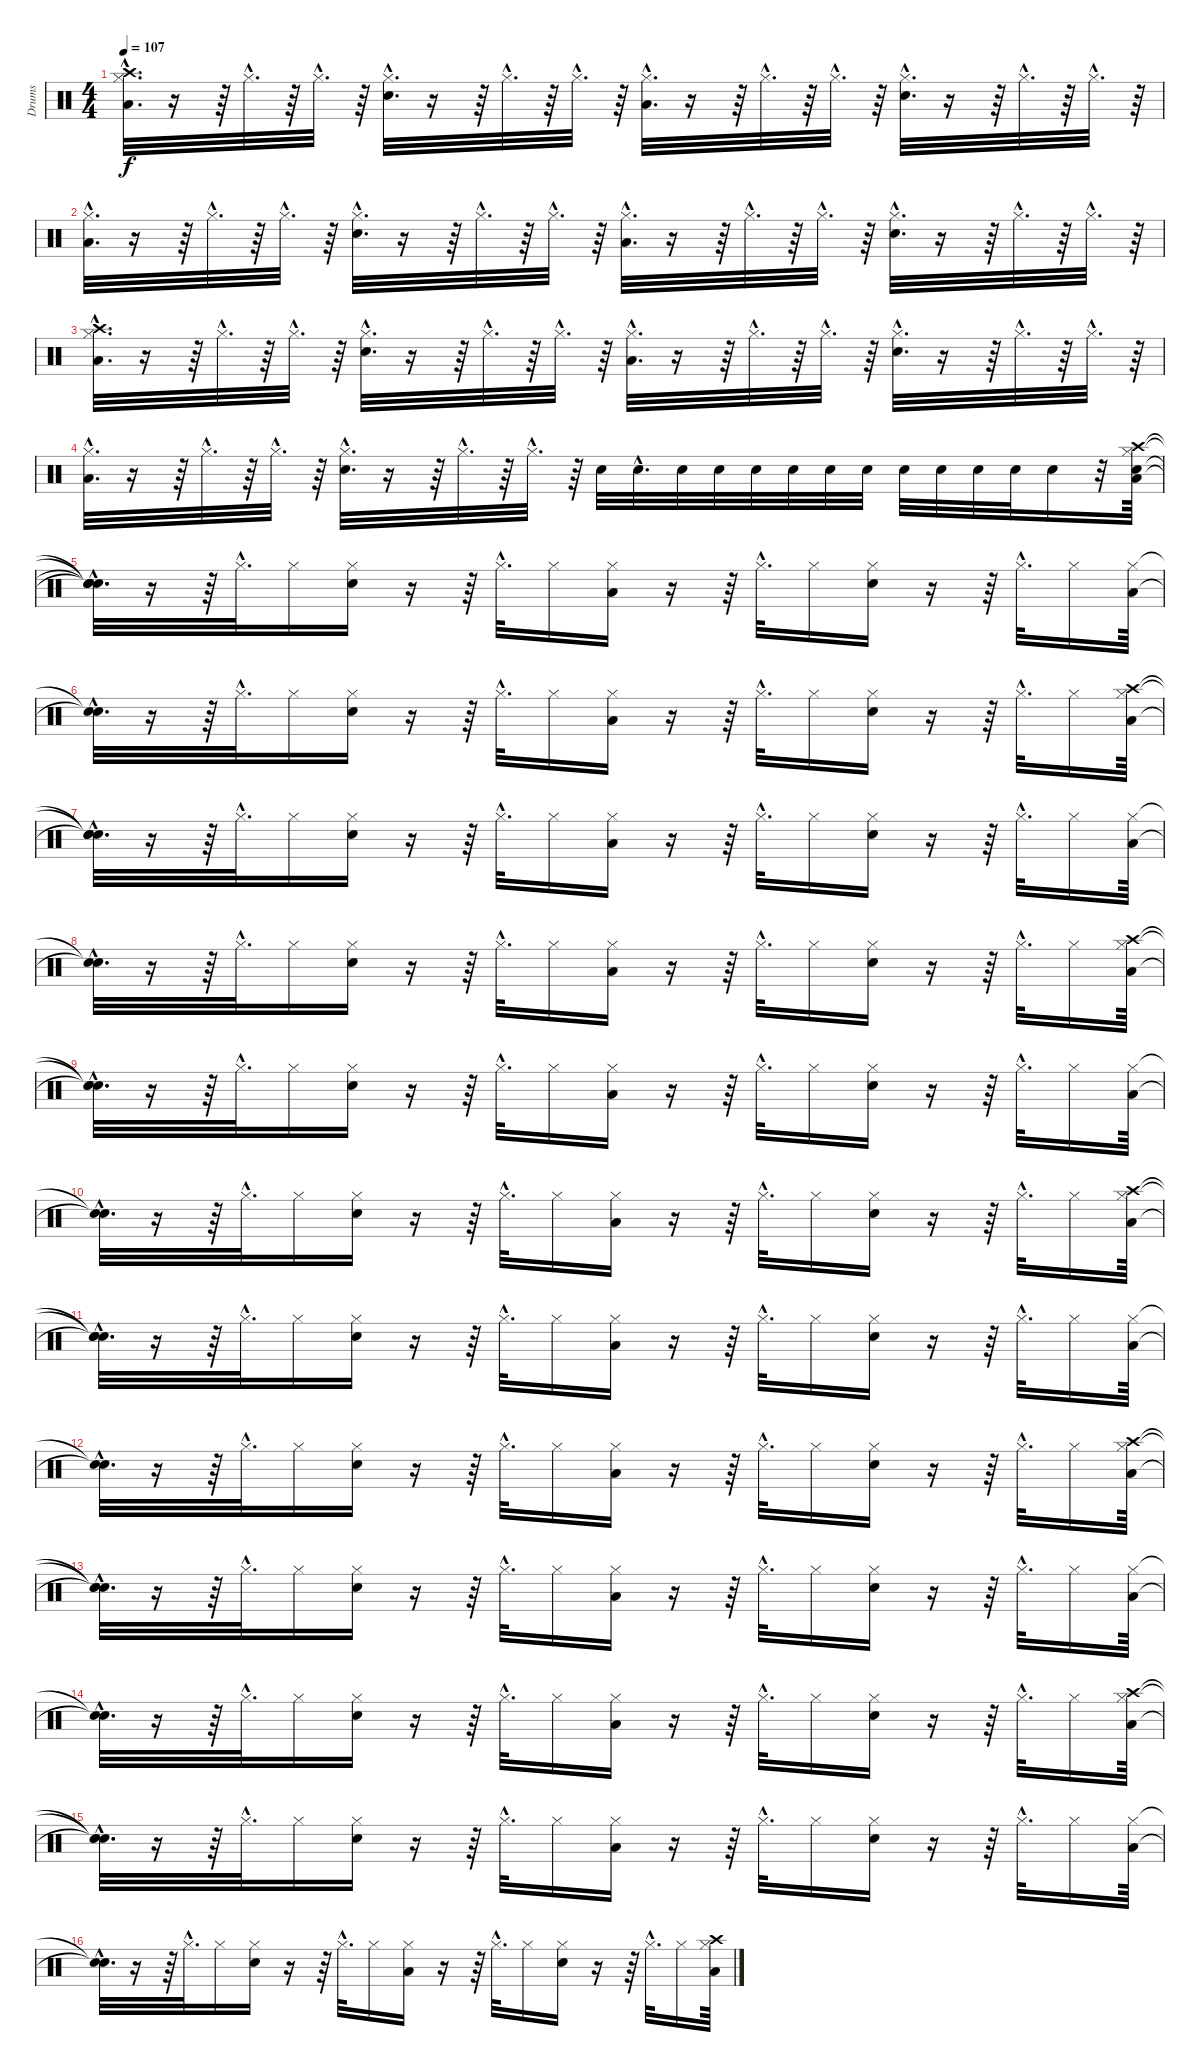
\track ("Drums" "Drums") {instrument percussion}
\staff {score}
\articulation defaults
\ts (4 4)
\tempo 107
\clef neutral
\ks c
("Hi-Hat (closed)"{hac} "Crash high (hit)"{hac} "Low Tom (hit)"{hac}).32{d dy f} r.16 r.64 "Hi-Hat (closed)"{hac}.32{d} r.64 "Hi-Hat (closed)"{hac}.32{d} r.64 ("Hi-Hat (closed)"{hac} "Snare (hit) 2"{hac}).32{d} r.16 r.64 "Hi-Hat (closed)"{hac}.32{d} r.64 "Hi-Hat (closed)"{hac}.32{d} r.64 ("Hi-Hat (closed)"{hac} "Low Tom (hit)"{hac}).32{d} r.16 r.64 "Hi-Hat (closed)"{hac}.32{d} r.64 "Hi-Hat (closed)"{hac}.32{d} r.64 ("Hi-Hat (closed)"{hac} "Snare (hit) 2"{hac}).32{d} r.16 r.64 "Hi-Hat (closed)"{hac}.32{d} r.64 "Hi-Hat (closed)"{hac}.32{d} r.64 |
("Hi-Hat (closed)"{hac} "Low Tom (hit)"{hac}).32{d} r.16 r.64 "Hi-Hat (closed)"{hac}.32{d} r.64 "Hi-Hat (closed)"{hac}.32{d} r.64 ("Hi-Hat (closed)"{hac} "Snare (hit) 2"{hac}).32{d} r.16 r.64 "Hi-Hat (closed)"{hac}.32{d} r.64 "Hi-Hat (closed)"{hac}.32{d} r.64 ("Hi-Hat (closed)"{hac} "Low Tom (hit)"{hac}).32{d} r.16 r.64 "Hi-Hat (closed)"{hac}.32{d} r.64 "Hi-Hat (closed)"{hac}.32{d} r.64 ("Hi-Hat (closed)"{hac} "Snare (hit) 2"{hac}).32{d} r.16 r.64 "Hi-Hat (closed)"{hac}.32{d} r.64 "Hi-Hat (closed)"{hac}.32{d} r.64 |
("Hi-Hat (closed)"{hac} "Crash high (hit)"{hac} "Low Tom (hit)"{hac}).32{d} r.16 r.64 "Hi-Hat (closed)"{hac}.32{d} r.64 "Hi-Hat (closed)"{hac}.32{d} r.64 ("Hi-Hat (closed)"{hac} "Snare (hit) 2"{hac}).32{d} r.16 r.64 "Hi-Hat (closed)"{hac}.32{d} r.64 "Hi-Hat (closed)"{hac}.32{d} r.64 ("Hi-Hat (closed)"{hac} "Low Tom (hit)"{hac}).32{d} r.16 r.64 "Hi-Hat (closed)"{hac}.32{d} r.64 "Hi-Hat (closed)"{hac}.32{d} r.64 ("Hi-Hat (closed)"{hac} "Snare (hit) 2"{hac}).32{d} r.16 r.64 "Hi-Hat (closed)"{hac}.32{d} r.64 "Hi-Hat (closed)"{hac}.32{d} r.64 |
("Hi-Hat (closed)"{hac} "Low Tom (hit)"{hac}).32{d} r.16 r.64 "Hi-Hat (closed)"{hac}.32{d} r.64 "Hi-Hat (closed)"{hac}.32{d} r.64 ("Hi-Hat (closed)"{hac} "Snare (hit) 2"{hac}).32{d} r.16 r.64 "Hi-Hat (closed)"{hac}.32{d} r.64 "Hi-Hat (closed)"{hac}.32{d} r.64 "Snare (hit) 2".32 "Snare (hit) 2"{hac}.32{d} "Snare (hit) 2".32 "Snare (hit) 2".32 "Snare (hit) 2".32 "Snare (hit) 2".32 "Snare (hit) 2".32 "Snare (hit) 2".32 "Snare (hit) 2".32 "Snare (hit) 2".32 "Snare (hit) 2".32 "Snare (hit) 2".32 "Snare (hit) 2".16 r.32 ("Hi-Hat (closed)" "Crash high (hit)" "Low Tom (hit)" "Snare (hit) 2").64 |
("Snare (hit)"{hac t} "Snare (hit)"{hac t} "Snare (hit)"{hac t} "Snare (hit)"{hac t}).32{d} r.16 r.64 "Hi-Hat (closed)"{hac}.32{d} "Hi-Hat (closed)".16 ("Hi-Hat (closed)" "Snare (hit) 2").16 r.16 r.64 "Hi-Hat (closed)"{hac}.32{d} "Hi-Hat (closed)".16 ("Hi-Hat (closed)" "Low Tom (hit)").16 r.16 r.64 "Hi-Hat (closed)"{hac}.32{d} "Hi-Hat (closed)".16 ("Hi-Hat (closed)" "Snare (hit) 2").16 r.16 r.64 "Hi-Hat (closed)"{hac}.32{d} "Hi-Hat (closed)".16 ("Hi-Hat (closed)" "Low Tom (hit)").64 |
("Snare (hit)"{hac t} "Snare (hit)"{hac t}).32{d} r.16 r.64 "Hi-Hat (closed)"{hac}.32{d} "Hi-Hat (closed)".16 ("Hi-Hat (closed)" "Snare (hit) 2").16 r.16 r.64 "Hi-Hat (closed)"{hac}.32{d} "Hi-Hat (closed)".16 ("Hi-Hat (closed)" "Low Tom (hit)").16 r.16 r.64 "Hi-Hat (closed)"{hac}.32{d} "Hi-Hat (closed)".16 ("Hi-Hat (closed)" "Snare (hit) 2").16 r.16 r.64 "Hi-Hat (closed)"{hac}.32{d} "Hi-Hat (closed)".16 ("Hi-Hat (closed)" "Crash high (hit)" "Low Tom (hit)").64 |
("Snare (hit)"{hac t} "Snare (hit)"{hac t} "Snare (hit)"{hac t}).32{d} r.16 r.64 "Hi-Hat (closed)"{hac}.32{d} "Hi-Hat (closed)".16 ("Hi-Hat (closed)" "Snare (hit) 2").16 r.16 r.64 "Hi-Hat (closed)"{hac}.32{d} "Hi-Hat (closed)".16 ("Hi-Hat (closed)" "Low Tom (hit)").16 r.16 r.64 "Hi-Hat (closed)"{hac}.32{d} "Hi-Hat (closed)".16 ("Hi-Hat (closed)" "Snare (hit) 2").16 r.16 r.64 "Hi-Hat (closed)"{hac}.32{d} "Hi-Hat (closed)".16 ("Hi-Hat (closed)" "Low Tom (hit)").64 |
("Snare (hit)"{hac t} "Snare (hit)"{hac t}).32{d} r.16 r.64 "Hi-Hat (closed)"{hac}.32{d} "Hi-Hat (closed)".16 ("Hi-Hat (closed)" "Snare (hit) 2").16 r.16 r.64 "Hi-Hat (closed)"{hac}.32{d} "Hi-Hat (closed)".16 ("Hi-Hat (closed)" "Low Tom (hit)").16 r.16 r.64 "Hi-Hat (closed)"{hac}.32{d} "Hi-Hat (closed)".16 ("Hi-Hat (closed)" "Snare (hit) 2").16 r.16 r.64 "Hi-Hat (closed)"{hac}.32{d} "Hi-Hat (closed)".16 ("Hi-Hat (closed)" "Crash high (hit)" "Low Tom (hit)").64 |
("Snare (hit)"{hac t} "Snare (hit)"{hac t} "Snare (hit)"{hac t}).32{d} r.16 r.64 "Hi-Hat (closed)"{hac}.32{d} "Hi-Hat (closed)".16 ("Hi-Hat (closed)" "Snare (hit) 2").16 r.16 r.64 "Hi-Hat (closed)"{hac}.32{d} "Hi-Hat (closed)".16 ("Hi-Hat (closed)" "Low Tom (hit)").16 r.16 r.64 "Hi-Hat (closed)"{hac}.32{d} "Hi-Hat (closed)".16 ("Hi-Hat (closed)" "Snare (hit) 2").16 r.16 r.64 "Hi-Hat (closed)"{hac}.32{d} "Hi-Hat (closed)".16 ("Hi-Hat (closed)" "Low Tom (hit)").64 |
("Snare (hit)"{hac t} "Snare (hit)"{hac t}).32{d} r.16 r.64 "Hi-Hat (closed)"{hac}.32{d} "Hi-Hat (closed)".16 ("Hi-Hat (closed)" "Snare (hit) 2").16 r.16 r.64 "Hi-Hat (closed)"{hac}.32{d} "Hi-Hat (closed)".16 ("Hi-Hat (closed)" "Low Tom (hit)").16 r.16 r.64 "Hi-Hat (closed)"{hac}.32{d} "Hi-Hat (closed)".16 ("Hi-Hat (closed)" "Snare (hit) 2").16 r.16 r.64 "Hi-Hat (closed)"{hac}.32{d} "Hi-Hat (closed)".16 ("Hi-Hat (closed)" "Crash high (hit)" "Low Tom (hit)").64 |
("Snare (hit)"{hac t} "Snare (hit)"{hac t} "Snare (hit)"{hac t}).32{d} r.16 r.64 "Hi-Hat (closed)"{hac}.32{d} "Hi-Hat (closed)".16 ("Hi-Hat (closed)" "Snare (hit) 2").16 r.16 r.64 "Hi-Hat (closed)"{hac}.32{d} "Hi-Hat (closed)".16 ("Hi-Hat (closed)" "Low Tom (hit)").16 r.16 r.64 "Hi-Hat (closed)"{hac}.32{d} "Hi-Hat (closed)".16 ("Hi-Hat (closed)" "Snare (hit) 2").16 r.16 r.64 "Hi-Hat (closed)"{hac}.32{d} "Hi-Hat (closed)".16 ("Hi-Hat (closed)" "Low Tom (hit)").64 |
("Snare (hit)"{hac t} "Snare (hit)"{hac t}).32{d} r.16 r.64 "Hi-Hat (closed)"{hac}.32{d} "Hi-Hat (closed)".16 ("Hi-Hat (closed)" "Snare (hit) 2").16 r.16 r.64 "Hi-Hat (closed)"{hac}.32{d} "Hi-Hat (closed)".16 ("Hi-Hat (closed)" "Low Tom (hit)").16 r.16 r.64 "Hi-Hat (closed)"{hac}.32{d} "Hi-Hat (closed)".16 ("Hi-Hat (closed)" "Snare (hit) 2").16 r.16 r.64 "Hi-Hat (closed)"{hac}.32{d} "Hi-Hat (closed)".16 ("Hi-Hat (closed)" "Crash high (hit)" "Low Tom (hit)").64 |
("Snare (hit)"{hac t} "Snare (hit)"{hac t} "Snare (hit)"{hac t}).32{d} r.16 r.64 "Hi-Hat (closed)"{hac}.32{d} "Hi-Hat (closed)".16 ("Hi-Hat (closed)" "Snare (hit) 2").16 r.16 r.64 "Hi-Hat (closed)"{hac}.32{d} "Hi-Hat (closed)".16 ("Hi-Hat (closed)" "Low Tom (hit)").16 r.16 r.64 "Hi-Hat (closed)"{hac}.32{d} "Hi-Hat (closed)".16 ("Hi-Hat (closed)" "Snare (hit) 2").16 r.16 r.64 "Hi-Hat (closed)"{hac}.32{d} "Hi-Hat (closed)".16 ("Hi-Hat (closed)" "Low Tom (hit)").64 |
("Snare (hit)"{hac t} "Snare (hit)"{hac t}).32{d} r.16 r.64 "Hi-Hat (closed)"{hac}.32{d} "Hi-Hat (closed)".16 ("Hi-Hat (closed)" "Snare (hit) 2").16 r.16 r.64 "Hi-Hat (closed)"{hac}.32{d} "Hi-Hat (closed)".16 ("Hi-Hat (closed)" "Low Tom (hit)").16 r.16 r.64 "Hi-Hat (closed)"{hac}.32{d} "Hi-Hat (closed)".16 ("Hi-Hat (closed)" "Snare (hit) 2").16 r.16 r.64 "Hi-Hat (closed)"{hac}.32{d} "Hi-Hat (closed)".16 ("Hi-Hat (closed)" "Crash high (hit)" "Low Tom (hit)").64 |
("Snare (hit)"{hac t} "Snare (hit)"{hac t} "Snare (hit)"{hac t}).32{d} r.16 r.64 "Hi-Hat (closed)"{hac}.32{d} "Hi-Hat (closed)".16 ("Hi-Hat (closed)" "Snare (hit) 2").16 r.16 r.64 "Hi-Hat (closed)"{hac}.32{d} "Hi-Hat (closed)".16 ("Hi-Hat (closed)" "Low Tom (hit)").16 r.16 r.64 "Hi-Hat (closed)"{hac}.32{d} "Hi-Hat (closed)".16 ("Hi-Hat (closed)" "Snare (hit) 2").16 r.16 r.64 "Hi-Hat (closed)"{hac}.32{d} "Hi-Hat (closed)".16 ("Hi-Hat (closed)" "Low Tom (hit)").64 |
("Snare (hit)"{hac t} "Snare (hit)"{hac t}).32{d} r.16 r.64 "Hi-Hat (closed)"{hac}.32{d} "Hi-Hat (closed)".16 ("Hi-Hat (closed)" "Snare (hit) 2").16 r.16 r.64 "Hi-Hat (closed)"{hac}.32{d} "Hi-Hat (closed)".16 ("Hi-Hat (closed)" "Low Tom (hit)").16 r.16 r.64 "Hi-Hat (closed)"{hac}.32{d} "Hi-Hat (closed)".16 ("Hi-Hat (closed)" "Snare (hit) 2").16 r.16 r.64 "Hi-Hat (closed)"{hac}.32{d} "Hi-Hat (closed)".16 ("Hi-Hat (closed)" "Crash high (hit)" "Low Tom (hit)").64
